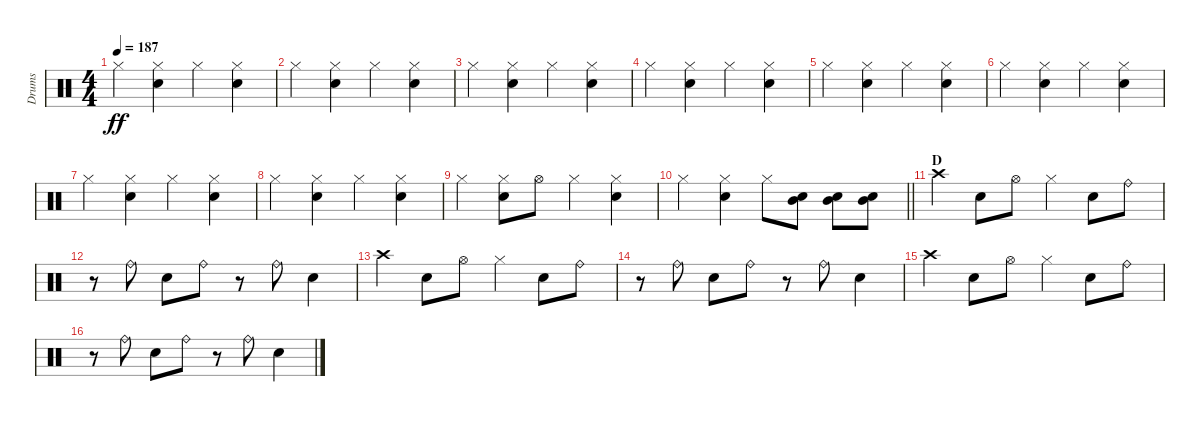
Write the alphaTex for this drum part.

\track ("Drums" "Drums") {instrument percussion}
\staff {score}
\articulation defaults
\ts (4 4)
\tempo 187
\clef neutral
\ks c "Hi-Hat (closed)".4{dy ff}
("Hi-Hat (closed)" "Snare (hit) 2").4 "Hi-Hat (closed)".4 ("Hi-Hat (closed)" "Snare (hit) 2").4 |
"Hi-Hat (closed)".4 ("Hi-Hat (closed)" "Snare (hit) 2").4 "Hi-Hat (closed)".4 ("Hi-Hat (closed)" "Snare (hit) 2").4 |
"Hi-Hat (closed)".4 ("Hi-Hat (closed)" "Snare (hit) 2").4 "Hi-Hat (closed)".4 ("Hi-Hat (closed)" "Snare (hit) 2").4 |
"Hi-Hat (closed)".4 ("Hi-Hat (closed)" "Snare (hit) 2").4 "Hi-Hat (closed)".4 ("Hi-Hat (closed)" "Snare (hit) 2").4 |
"Hi-Hat (closed)".4 ("Hi-Hat (closed)" "Snare (hit) 2").4 "Hi-Hat (closed)".4 ("Hi-Hat (closed)" "Snare (hit) 2").4 |
"Hi-Hat (closed)".4 ("Hi-Hat (closed)" "Snare (hit) 2").4 "Hi-Hat (closed)".4 ("Hi-Hat (closed)" "Snare (hit) 2").4 |
"Hi-Hat (closed)".4 ("Hi-Hat (closed)" "Snare (hit) 2").4 "Hi-Hat (closed)".4 ("Hi-Hat (closed)" "Snare (hit) 2").4 |
"Hi-Hat (closed)".4 ("Hi-Hat (closed)" "Snare (hit) 2").4 "Hi-Hat (closed)".4 ("Hi-Hat (closed)" "Snare (hit) 2").4 |
"Hi-Hat (closed)".4 ("Snare (hit) 2" "Hi-Hat (closed)").8 "Hi-Hat (open)".8 "Hi-Hat (closed)".4 ("Hi-Hat (closed)" "Snare (hit) 2").4 |
\barLineRight lightlight "Hi-Hat (closed)".4
("Hi-Hat (closed)" "Snare (hit) 2").4 "Hi-Hat (closed)".8 ("Mid Tom (hit)" "Snare (hit) 2").8 ("Snare (hit) 2" "Mid Tom (hit)").8 ("Mid Tom (hit)" "Snare (hit) 2").8 |
\section ("" "D")
"Crash high (hit)".4 "Snare (hit) 2".8 "Hi-Hat (open)".8 "Hi-Hat (closed)".4 "Snare (hit) 2".8 "Ride (bell)".8 |
r.8 "Ride (bell)".8 "Snare (hit) 2".8 "Ride (bell)".8 r.8 "Ride (bell)".8 "Snare (hit) 2".4 |
"Crash high (hit)".4 "Snare (hit) 2".8 "Hi-Hat (open)".8 "Hi-Hat (closed)".4 "Snare (hit) 2".8 "Ride (bell)".8 |
r.8 "Ride (bell)".8 "Snare (hit) 2".8 "Ride (bell)".8 r.8 "Ride (bell)".8 "Snare (hit) 2".4 |
"Crash high (hit)".4 "Snare (hit) 2".8 "Hi-Hat (open)".8 "Hi-Hat (closed)".4 "Snare (hit) 2".8 "Ride (bell)".8 |
r.8 "Ride (bell)".8 "Snare (hit) 2".8 "Ride (bell)".8 r.8 "Ride (bell)".8 "Snare (hit) 2".4
